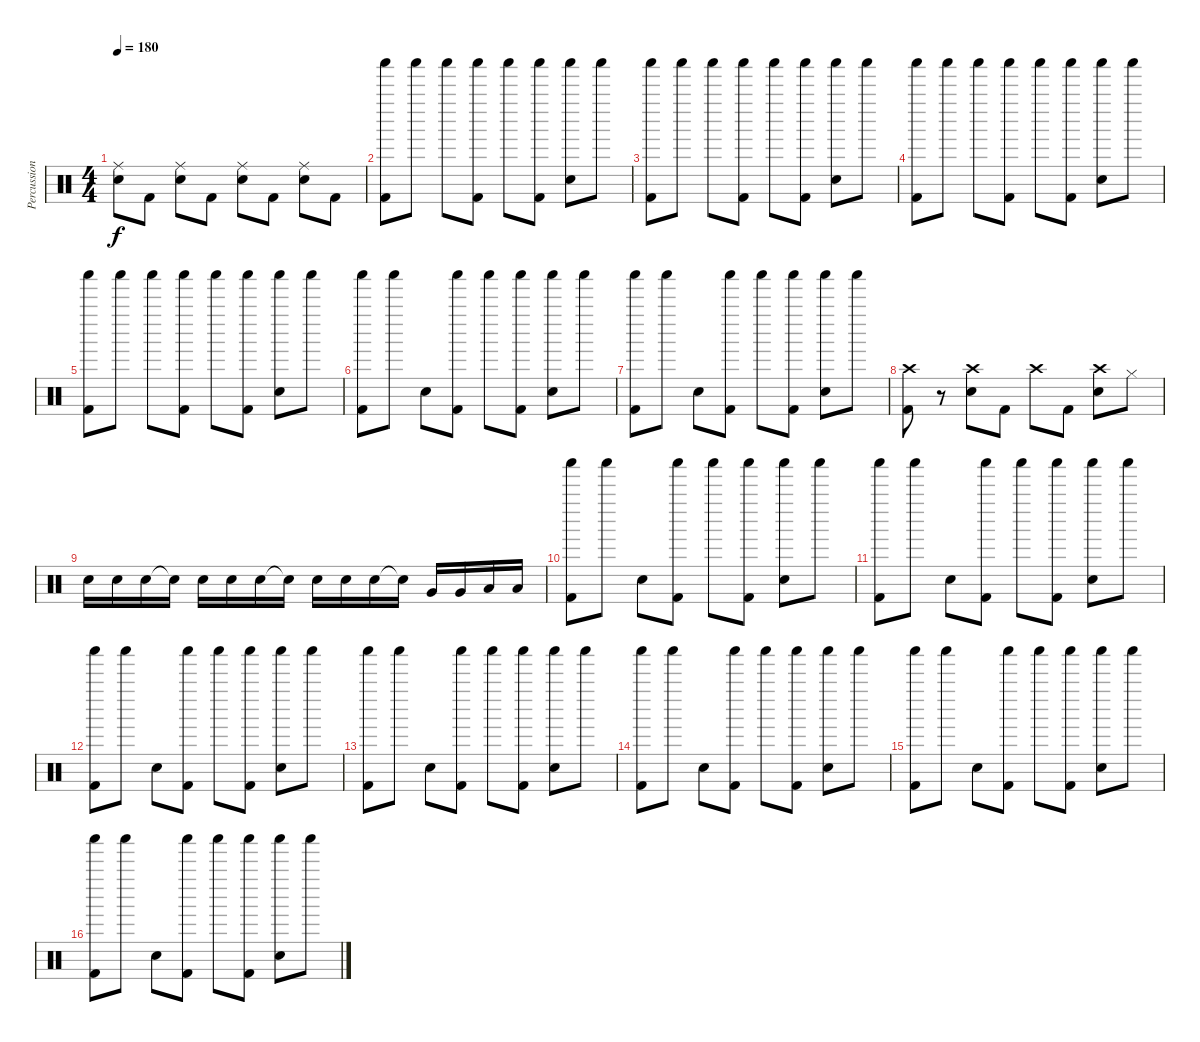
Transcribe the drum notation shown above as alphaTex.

\track ("Percussion" "Percussion") {instrument percussion}
\staff {score}
\articulation defaults
\ts (4 4)
\tempo 180
\clef neutral
\ks c
("Ride (middle)" "Electric Snare (hit)").8{dy f} "Kick (hit) 2".8 ("Ride (middle)" "Electric Snare (hit)").8 "Kick (hit) 2".8 ("Ride (middle)" "Electric Snare (hit)").8 "Kick (hit) 2".8 ("Ride (middle)" "Electric Snare (hit)").8 "Kick (hit) 2".8 |
("Shaker (hit)" "Kick (hit) 2").8 "Shaker (hit)".8 "Shaker (hit)".8 ("Shaker (hit)" "Kick (hit) 2").8 "Shaker (hit)".8 ("Shaker (hit)" "Kick (hit) 2").8 ("Shaker (hit)" "Snare (hit) 2").8 "Shaker (hit)".8 |
("Shaker (hit)" "Kick (hit) 2").8 "Shaker (hit)".8 "Shaker (hit)".8 ("Shaker (hit)" "Kick (hit) 2").8 "Shaker (hit)".8 ("Shaker (hit)" "Kick (hit) 2").8 ("Shaker (hit)" "Snare (hit) 2").8 "Shaker (hit)".8 |
("Shaker (hit)" "Kick (hit) 2").8 "Shaker (hit)".8 "Shaker (hit)".8 ("Shaker (hit)" "Kick (hit) 2").8 "Shaker (hit)".8 ("Shaker (hit)" "Kick (hit) 2").8 ("Shaker (hit)" "Snare (hit) 2").8 "Shaker (hit)".8 |
("Shaker (hit)" "Kick (hit) 2").8 "Shaker (hit)".8 "Shaker (hit)".8 ("Shaker (hit)" "Kick (hit) 2").8 "Shaker (hit)".8 ("Shaker (hit)" "Kick (hit) 2").8 ("Shaker (hit)" "Snare (hit) 2").8 "Shaker (hit)".8 |
("Shaker (hit)" "Kick (hit) 2").8 "Shaker (hit)".8 "Snare (hit) 2".8 ("Shaker (hit)" "Kick (hit) 2").8 "Shaker (hit)".8 ("Shaker (hit)" "Kick (hit) 2").8 ("Shaker (hit)" "Snare (hit) 2").8 "Shaker (hit)".8 |
("Shaker (hit)" "Kick (hit) 2").8 "Shaker (hit)".8 "Snare (hit) 2".8 ("Shaker (hit)" "Kick (hit) 2").8 "Shaker (hit)".8 ("Shaker (hit)" "Kick (hit) 2").8 ("Shaker (hit)" "Snare (hit) 2").8 "Shaker (hit)".8 |
("Crash high (hit)" "Kick (hit) 2").8 r.8 ("Crash high (hit)" "Electric Snare (hit)").8 "Kick (hit) 2".8 "Crash high (hit)".8 "Kick (hit) 2".8 ("Crash high (hit)" "Electric Snare (hit)").8 "Hi-Hat (closed)".8 |
"Electric Snare (hit)".16 "Electric Snare (hit)".16 "Electric Snare (hit)".16 "Snare (hit)"{t}.16 "Electric Snare (hit)".16 "Electric Snare (hit)".16 "Electric Snare (hit)".16 "Snare (hit)"{t}.16 "Electric Snare (hit)".16 "Electric Snare (hit)".16 "Electric Snare (hit)".16 "Snare (hit)"{t}.16 "Very Low Tom (hit)".16 "Very Low Tom (hit)".16 "Low Floor Tom (hit)".16 "Low Floor Tom (hit)".16 |
("Shaker (hit)" "Kick (hit) 2").8 "Shaker (hit)".8 "Snare (hit) 2".8 ("Shaker (hit)" "Kick (hit) 2").8 "Shaker (hit)".8 ("Shaker (hit)" "Kick (hit) 2").8 ("Shaker (hit)" "Snare (hit) 2").8 "Shaker (hit)".8 |
("Shaker (hit)" "Kick (hit) 2").8 "Shaker (hit)".8 "Snare (hit) 2".8 ("Shaker (hit)" "Kick (hit) 2").8 "Shaker (hit)".8 ("Shaker (hit)" "Kick (hit) 2").8 ("Shaker (hit)" "Snare (hit) 2").8 "Shaker (hit)".8 |
("Shaker (hit)" "Kick (hit) 2").8 "Shaker (hit)".8 "Snare (hit) 2".8 ("Shaker (hit)" "Kick (hit) 2").8 "Shaker (hit)".8 ("Shaker (hit)" "Kick (hit) 2").8 ("Shaker (hit)" "Snare (hit) 2").8 "Shaker (hit)".8 |
("Shaker (hit)" "Kick (hit) 2").8 "Shaker (hit)".8 "Snare (hit) 2".8 ("Shaker (hit)" "Kick (hit) 2").8 "Shaker (hit)".8 ("Shaker (hit)" "Kick (hit) 2").8 ("Shaker (hit)" "Snare (hit) 2").8 "Shaker (hit)".8 |
("Shaker (hit)" "Kick (hit) 2").8 "Shaker (hit)".8 "Snare (hit) 2".8 ("Shaker (hit)" "Kick (hit) 2").8 "Shaker (hit)".8 ("Shaker (hit)" "Kick (hit) 2").8 ("Shaker (hit)" "Snare (hit) 2").8 "Shaker (hit)".8 |
("Shaker (hit)" "Kick (hit) 2").8 "Shaker (hit)".8 "Snare (hit) 2".8 ("Shaker (hit)" "Kick (hit) 2").8 "Shaker (hit)".8 ("Shaker (hit)" "Kick (hit) 2").8 ("Shaker (hit)" "Snare (hit) 2").8 "Shaker (hit)".8 |
("Shaker (hit)" "Kick (hit) 2").8 "Shaker (hit)".8 "Snare (hit) 2".8 ("Shaker (hit)" "Kick (hit) 2").8 "Shaker (hit)".8 ("Shaker (hit)" "Kick (hit) 2").8 ("Shaker (hit)" "Snare (hit) 2").8 "Shaker (hit)".8
